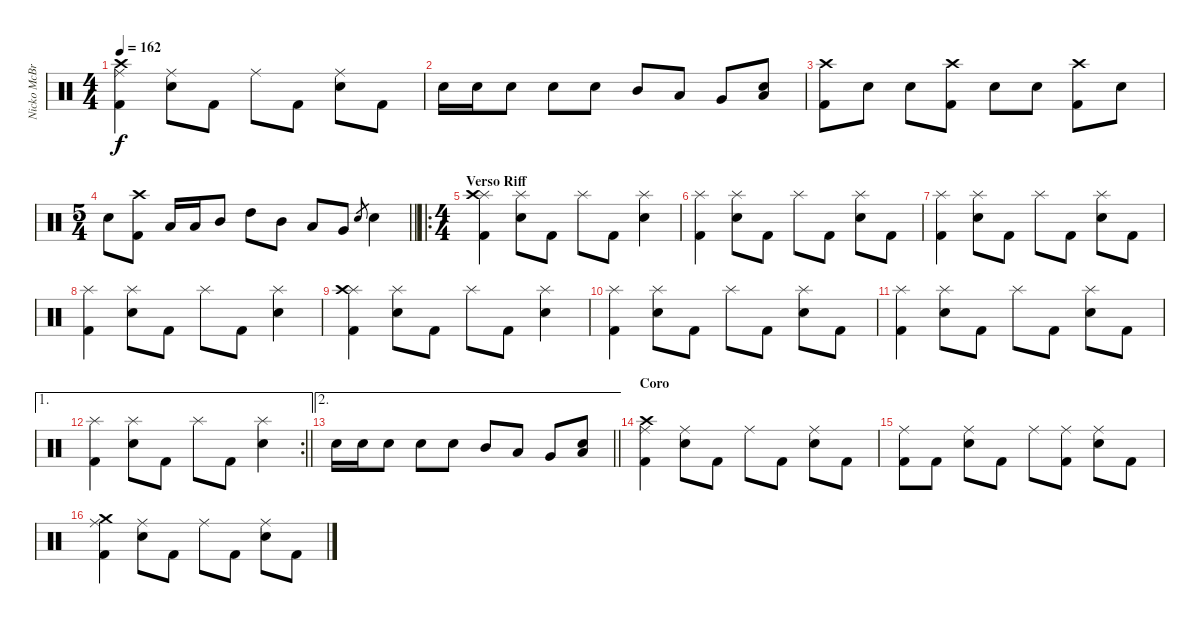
\track ("Nicko McBrain" "Nicko McBr") {instrument percussion}
\staff {score}
\articulation defaults
\ts (4 4)
\tempo 162
\clef neutral
\ks c
("Kick (hit) 2" "Ride (middle)" "Crash high (hit)").4{dy f} ("Electric Snare (hit)" "Ride (middle)").8 "Kick (hit) 2".8 "Ride (middle)".8 "Kick (hit) 2".8 ("Electric Snare (hit)" "Ride (middle)").8 "Kick (hit) 2".8 |
"Electric Snare (hit)".16 "Electric Snare (hit)".16 "Electric Snare (hit)".8 "Electric Snare (hit)".8 "Electric Snare (hit)".8 "Mid Tom (hit)".8 "Low Tom (hit)".8 "Very Low Tom (hit)".8 ("Low Floor Tom (hit)" "Electric Snare (hit)").8 |
("Kick (hit) 2" "Crash high (hit)").8 "Electric Snare (hit)".8 "Electric Snare (hit)".8 ("Kick (hit) 2" "Crash high (hit)").8 "Electric Snare (hit)".8 "Electric Snare (hit)".8 ("Kick (hit) 2" "Crash high (hit)").8 "Electric Snare (hit)".8 |
\ts (5 4)
\barLineRight lightlight "Electric Snare (hit)".8
("Kick (hit) 2" "Crash high (hit)").8 "Low Tom (hit)".16 "Low Tom (hit)".16 "Mid Tom (hit)".8 "High Tom (hit)".8 "Mid Tom (hit)".8 "Low Tom (hit)".8 "Very Low Tom (hit)".8 "Electric Snare (hit)".8{gr} "Electric Snare (hit)".4 |
\ro
\ts (4 4)
\section ("" "Verso Riff")
("Kick (hit) 2" "Splash (hit)" "Crash high (hit)").4 ("Electric Snare (hit)" "Splash (hit)").8 "Kick (hit) 2".8 "Splash (hit)".8 "Kick (hit) 2".8 ("Electric Snare (hit)" "Splash (hit)").4 |
("Kick (hit) 2" "Splash (hit)").4 ("Electric Snare (hit)" "Splash (hit)").8 "Kick (hit) 2".8 "Splash (hit)".8 "Kick (hit) 2".8 ("Electric Snare (hit)" "Splash (hit)").8 "Kick (hit) 2".8 |
("Kick (hit) 2" "Splash (hit)").4 ("Electric Snare (hit)" "Splash (hit)").8 "Kick (hit) 2".8 "Splash (hit)".8 "Kick (hit) 2".8 ("Electric Snare (hit)" "Splash (hit)").8 "Kick (hit) 2".8 |
("Kick (hit) 2" "Splash (hit)").4 ("Electric Snare (hit)" "Splash (hit)").8 "Kick (hit) 2".8 "Splash (hit)".8 "Kick (hit) 2".8 ("Electric Snare (hit)" "Splash (hit)").4 |
("Kick (hit) 2" "Splash (hit)" "Crash high (hit)").4 ("Electric Snare (hit)" "Splash (hit)").8 "Kick (hit) 2".8 "Splash (hit)".8 "Kick (hit) 2".8 ("Electric Snare (hit)" "Splash (hit)").4 |
("Kick (hit) 2" "Splash (hit)").4 ("Electric Snare (hit)" "Splash (hit)").8 "Kick (hit) 2".8 "Splash (hit)".8 "Kick (hit) 2".8 ("Electric Snare (hit)" "Splash (hit)").8 "Kick (hit) 2".8 |
("Kick (hit) 2" "Splash (hit)").4 ("Electric Snare (hit)" "Splash (hit)").8 "Kick (hit) 2".8 "Splash (hit)".8 "Kick (hit) 2".8 ("Electric Snare (hit)" "Splash (hit)").8 "Kick (hit) 2".8 |
\ae 1
\rc 2
\barLineRight lightlight
("Kick (hit) 2" "Splash (hit)").4 ("Electric Snare (hit)" "Splash (hit)").8 "Kick (hit) 2".8 "Splash (hit)".8 "Kick (hit) 2".8 ("Electric Snare (hit)" "Splash (hit)").4 |
\ae 2
\barLineRight lightlight "Electric Snare (hit)".16 "Electric Snare (hit)".16 "Electric Snare (hit)".8 "Electric Snare (hit)".8 "Electric Snare (hit)".8 "Mid Tom (hit)".8 "Low Tom (hit)".8 "Very Low Tom (hit)".8
("Low Floor Tom (hit)" "Electric Snare (hit)").8 |
\section ("" "Coro")
("Kick (hit) 2" "Ride (middle)" "Crash high (hit)").4 ("Electric Snare (hit)" "Ride (middle)").8 "Kick (hit) 2".8 "Ride (middle)".8 "Kick (hit) 2".8 ("Electric Snare (hit)" "Ride (middle)").8 "Kick (hit) 2".8 |
("Kick (hit) 2" "Ride (middle)").8 "Kick (hit) 2".8 ("Electric Snare (hit)" "Ride (middle)").8 "Kick (hit) 2".8 "Ride (middle)".8 ("Kick (hit) 2" "Ride (middle)").8 ("Electric Snare (hit)" "Ride (middle)").8 "Kick (hit) 2".8 |
("Kick (hit) 2" "Ride (middle)" "Crash medium (hit)").4 ("Electric Snare (hit)" "Ride (middle)").8 "Kick (hit) 2".8 "Ride (middle)".8 "Kick (hit) 2".8 ("Electric Snare (hit)" "Ride (middle)").8 "Kick (hit) 2".8
